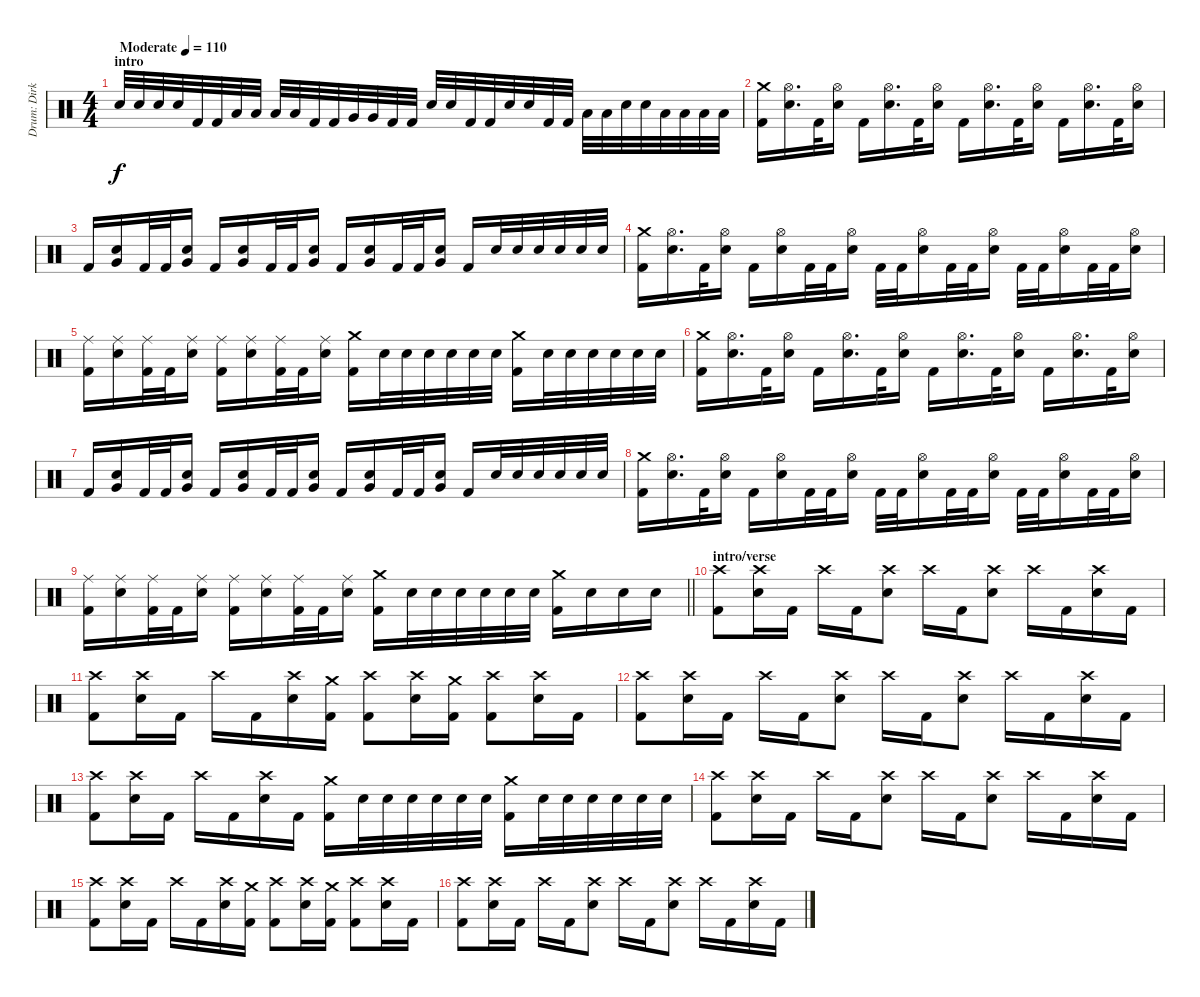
\track ("Drum: Dirk" "Drum: Dirk") {instrument percussion}
\staff {score}
\articulation defaults
\ts (4 4)
\section ("" "intro")
\tempo (110 "Moderate")
\clef neutral
\ks c "Electric Snare (hit)".32{dy f} "Electric Snare (hit)".32 "Electric Snare (hit)".32 "Electric Snare (hit)".32 "Kick (hit) 2".32 "Kick (hit) 2".32 "Low Tom (hit)".32 "Low Tom (hit)".32 "Low Tom (hit)".32 "Low Tom (hit)".32 "Kick (hit) 2".32 "Kick (hit) 2".32 "Very Low Tom (hit)".32 "Very Low Tom (hit)".32 "Kick (hit) 2".32 "Kick (hit) 2".32 "Electric Snare (hit)".32 "Electric Snare (hit)".32 "Kick (hit) 2".32 "Kick (hit) 2".32 "Electric Snare (hit)".32 "Electric Snare (hit)".32 "Kick (hit) 2".32 "Kick (hit) 2".32 "Low Tom (hit)".32 "Low Tom (hit)".32 "Electric Snare (hit)".32 "Electric Snare (hit)".32 "Low Tom (hit)".32 "Low Tom (hit)".32 "Low Tom (hit)".32 "Low Tom (hit)".32
|
("Crash medium (hit)" "Kick (hit) 2").16 ("Hi-Hat (open)" "Electric Snare (hit)").16{d} "Kick (hit) 2".32 ("Hi-Hat (open)" "Electric Snare (hit)").16 "Kick (hit) 2".16 ("Hi-Hat (open)" "Electric Snare (hit)").16{d} "Kick (hit) 2".32 ("Hi-Hat (open)" "Electric Snare (hit)").16 "Kick (hit) 2".16 ("Hi-Hat (open)" "Electric Snare (hit)").16{d} "Kick (hit) 2".32 ("Hi-Hat (open)" "Electric Snare (hit)").16 "Kick (hit) 2".16 ("Hi-Hat (open)" "Electric Snare (hit)").16{d} "Kick (hit) 2".32 ("Hi-Hat (open)" "Electric Snare (hit)").16 |
"Kick (hit) 2".16 ("Electric Snare (hit)" "Very Low Tom (hit)").16 "Kick (hit) 2".32 "Kick (hit) 2".32 ("Electric Snare (hit)" "Very Low Tom (hit)").16 "Kick (hit) 2".16 ("Electric Snare (hit)" "Very Low Tom (hit)").16 "Kick (hit) 2".32 "Kick (hit) 2".32 ("Electric Snare (hit)" "Very Low Tom (hit)").16 "Kick (hit) 2".16 ("Electric Snare (hit)" "Very Low Tom (hit)").16 "Kick (hit) 2".32 "Kick (hit) 2".32 ("Electric Snare (hit)" "Very Low Tom (hit)").16 "Kick (hit) 2".16 "Electric Snare (hit)".32 "Electric Snare (hit)".32 "Electric Snare (hit)".32 "Electric Snare (hit)".32 "Electric Snare (hit)".32 "Electric Snare (hit)".32 |
("Crash medium (hit)" "Kick (hit) 2").16 ("Hi-Hat (open)" "Electric Snare (hit)").16{d} "Kick (hit) 2".32 ("Hi-Hat (open)" "Electric Snare (hit)").16 "Kick (hit) 2".16 ("Hi-Hat (open)" "Electric Snare (hit)").16 "Kick (hit) 2".32 "Kick (hit) 2".32 ("Hi-Hat (open)" "Electric Snare (hit)").16 "Kick (hit) 2".32 "Kick (hit) 2".32 ("Hi-Hat (open)" "Electric Snare (hit)").16 "Kick (hit) 2".32 "Kick (hit) 2".32 ("Hi-Hat (open)" "Electric Snare (hit)").16 "Kick (hit) 2".32 "Kick (hit) 2".32 ("Hi-Hat (open)" "Electric Snare (hit)").16 "Kick (hit) 2".32 "Kick (hit) 2".32 ("Hi-Hat (open)" "Electric Snare (hit)").16 |
("Ride (middle)" "Kick (hit) 2").16 ("Ride (middle)" "Electric Snare (hit)").16 ("Ride (middle)" "Kick (hit) 2").32 "Kick (hit) 2".32 ("Ride (middle)" "Electric Snare (hit)").16 ("Ride (middle)" "Kick (hit) 2").16 ("Ride (middle)" "Electric Snare (hit)").16 ("Ride (middle)" "Kick (hit) 2").32 "Kick (hit) 2".32 ("Ride (middle)" "Electric Snare (hit)").16 ("Crash medium (hit)" "Kick (hit) 2").16 "Electric Snare (hit)".32 "Electric Snare (hit)".32 "Electric Snare (hit)".32 "Electric Snare (hit)".32 "Electric Snare (hit)".32 "Electric Snare (hit)".32 ("Crash medium (hit)" "Kick (hit) 2").16 "Electric Snare (hit)".32 "Electric Snare (hit)".32 "Electric Snare (hit)".32 "Electric Snare (hit)".32 "Electric Snare (hit)".32 "Electric Snare (hit)".32 |
("Crash medium (hit)" "Kick (hit) 2").16 ("Hi-Hat (open)" "Electric Snare (hit)").16{d} "Kick (hit) 2".32 ("Hi-Hat (open)" "Electric Snare (hit)").16 "Kick (hit) 2".16 ("Hi-Hat (open)" "Electric Snare (hit)").16{d} "Kick (hit) 2".32 ("Hi-Hat (open)" "Electric Snare (hit)").16 "Kick (hit) 2".16 ("Hi-Hat (open)" "Electric Snare (hit)").16{d} "Kick (hit) 2".32 ("Hi-Hat (open)" "Electric Snare (hit)").16 "Kick (hit) 2".16 ("Hi-Hat (open)" "Electric Snare (hit)").16{d} "Kick (hit) 2".32 ("Hi-Hat (open)" "Electric Snare (hit)").16 |
"Kick (hit) 2".16 ("Electric Snare (hit)" "Very Low Tom (hit)").16 "Kick (hit) 2".32 "Kick (hit) 2".32 ("Electric Snare (hit)" "Very Low Tom (hit)").16 "Kick (hit) 2".16 ("Electric Snare (hit)" "Very Low Tom (hit)").16 "Kick (hit) 2".32 "Kick (hit) 2".32 ("Electric Snare (hit)" "Very Low Tom (hit)").16 "Kick (hit) 2".16 ("Electric Snare (hit)" "Very Low Tom (hit)").16 "Kick (hit) 2".32 "Kick (hit) 2".32 ("Electric Snare (hit)" "Very Low Tom (hit)").16 "Kick (hit) 2".16 "Electric Snare (hit)".32 "Electric Snare (hit)".32 "Electric Snare (hit)".32 "Electric Snare (hit)".32 "Electric Snare (hit)".32 "Electric Snare (hit)".32 |
("Crash medium (hit)" "Kick (hit) 2").16 ("Hi-Hat (open)" "Electric Snare (hit)").16{d} "Kick (hit) 2".32 ("Hi-Hat (open)" "Electric Snare (hit)").16 "Kick (hit) 2".16 ("Hi-Hat (open)" "Electric Snare (hit)").16 "Kick (hit) 2".32 "Kick (hit) 2".32 ("Hi-Hat (open)" "Electric Snare (hit)").16 "Kick (hit) 2".32 "Kick (hit) 2".32 ("Hi-Hat (open)" "Electric Snare (hit)").16 "Kick (hit) 2".32 "Kick (hit) 2".32 ("Hi-Hat (open)" "Electric Snare (hit)").16 "Kick (hit) 2".32 "Kick (hit) 2".32 ("Hi-Hat (open)" "Electric Snare (hit)").16 "Kick (hit) 2".32 "Kick (hit) 2".32 ("Hi-Hat (open)" "Electric Snare (hit)").16 |
\barLineRight lightlight
("Ride (middle)" "Kick (hit) 2").16 ("Ride (middle)" "Electric Snare (hit)").16 ("Ride (middle)" "Kick (hit) 2").32 "Kick (hit) 2".32 ("Ride (middle)" "Electric Snare (hit)").16 ("Ride (middle)" "Kick (hit) 2").16 ("Ride (middle)" "Electric Snare (hit)").16 ("Ride (middle)" "Kick (hit) 2").32 "Kick (hit) 2".32 ("Ride (middle)" "Electric Snare (hit)").16 ("Crash medium (hit)" "Kick (hit) 2").16 "Electric Snare (hit)".32 "Electric Snare (hit)".32 "Electric Snare (hit)".32 "Electric Snare (hit)".32 "Electric Snare (hit)".32 "Electric Snare (hit)".32 ("Crash medium (hit)" "Kick (hit) 2").16 "Electric Snare (hit)".16 "Electric Snare (hit)".16 "Electric Snare (hit)".16 |
\section ("" "intro/verse")
("Crash high (hit)" "Kick (hit) 2").8 ("Crash high (hit)" "Electric Snare (hit)").16 "Kick (hit) 2".16 "Crash high (hit)".16 "Kick (hit) 2".16 ("Crash high (hit)" "Electric Snare (hit)").8 "Crash high (hit)".16 "Kick (hit) 2".16 ("Crash high (hit)" "Electric Snare (hit)").8 "Crash high (hit)".16 "Kick (hit) 2".16 ("Crash high (hit)" "Electric Snare (hit)").16 "Kick (hit) 2".16 |
("Crash high (hit)" "Kick (hit) 2").8 ("Crash high (hit)" "Electric Snare (hit)").16 "Kick (hit) 2".16 "Crash high (hit)".16 "Kick (hit) 2".16 ("Crash high (hit)" "Electric Snare (hit)").16 ("Crash medium (hit)" "Kick (hit) 2").16 ("Crash high (hit)" "Kick (hit) 2").8 ("Crash high (hit)" "Electric Snare (hit)").16 ("Crash medium (hit)" "Kick (hit) 2").16 ("Crash high (hit)" "Kick (hit) 2").8 ("Crash high (hit)" "Electric Snare (hit)").16 "Kick (hit) 2".16 |
("Crash high (hit)" "Kick (hit) 2").8 ("Crash high (hit)" "Electric Snare (hit)").16 "Kick (hit) 2".16 "Crash high (hit)".16 "Kick (hit) 2".16 ("Crash high (hit)" "Electric Snare (hit)").8 "Crash high (hit)".16 "Kick (hit) 2".16 ("Crash high (hit)" "Electric Snare (hit)").8 "Crash high (hit)".16 "Kick (hit) 2".16 ("Crash high (hit)" "Electric Snare (hit)").16 "Kick (hit) 2".16 |
("Crash high (hit)" "Kick (hit) 2").8 ("Crash high (hit)" "Electric Snare (hit)").16 "Kick (hit) 2".16 "Crash high (hit)".16 "Kick (hit) 2".16 ("Crash high (hit)" "Electric Snare (hit)").16 "Kick (hit) 2".16 ("Crash medium (hit)" "Kick (hit) 2").16 "Electric Snare (hit)".32 "Electric Snare (hit)".32 "Electric Snare (hit)".32 "Electric Snare (hit)".32 "Electric Snare (hit)".32 "Electric Snare (hit)".32 ("Crash medium (hit)" "Kick (hit) 2").16 "Electric Snare (hit)".32 "Electric Snare (hit)".32 "Electric Snare (hit)".32 "Electric Snare (hit)".32 "Electric Snare (hit)".32 "Electric Snare (hit)".32 |
("Crash high (hit)" "Kick (hit) 2").8 ("Crash high (hit)" "Electric Snare (hit)").16 "Kick (hit) 2".16 "Crash high (hit)".16 "Kick (hit) 2".16 ("Crash high (hit)" "Electric Snare (hit)").8 "Crash high (hit)".16 "Kick (hit) 2".16 ("Crash high (hit)" "Electric Snare (hit)").8 "Crash high (hit)".16 "Kick (hit) 2".16 ("Crash high (hit)" "Electric Snare (hit)").16 "Kick (hit) 2".16 |
("Crash high (hit)" "Kick (hit) 2").8 ("Crash high (hit)" "Electric Snare (hit)").16 "Kick (hit) 2".16 "Crash high (hit)".16 "Kick (hit) 2".16 ("Crash high (hit)" "Electric Snare (hit)").16 ("Crash medium (hit)" "Kick (hit) 2").16 ("Crash high (hit)" "Kick (hit) 2").8 ("Crash high (hit)" "Electric Snare (hit)").16 ("Crash medium (hit)" "Kick (hit) 2").16 ("Crash high (hit)" "Kick (hit) 2").8 ("Crash high (hit)" "Electric Snare (hit)").16 "Kick (hit) 2".16 |
("Crash high (hit)" "Kick (hit) 2").8 ("Crash high (hit)" "Electric Snare (hit)").16 "Kick (hit) 2".16 "Crash high (hit)".16 "Kick (hit) 2".16 ("Crash high (hit)" "Electric Snare (hit)").8 "Crash high (hit)".16 "Kick (hit) 2".16 ("Crash high (hit)" "Electric Snare (hit)").8 "Crash high (hit)".16 "Kick (hit) 2".16 ("Crash high (hit)" "Electric Snare (hit)").16 "Kick (hit) 2".16
